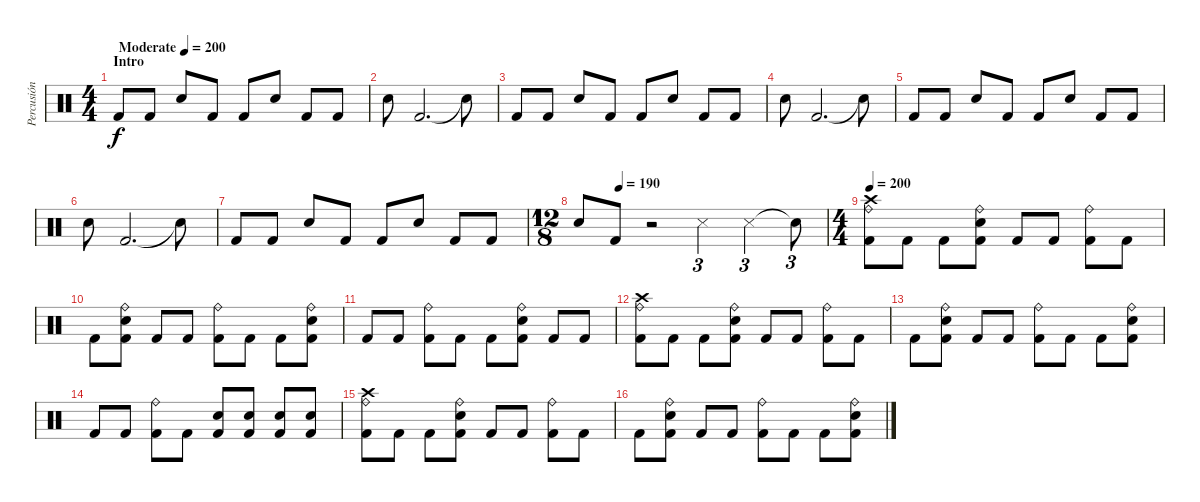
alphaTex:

\track ("Percusión" "Percusión") {instrument percussion}
\staff {score}
\articulation defaults
\ts (4 4)
\section ("" "Intro")
\tempo (200 "Moderate")
\clef neutral
\ks c "Kick (hit) 2".8{dy f} "Kick (hit) 2".8 "Snare (hit) 2".8 "Kick (hit) 2".8 "Kick (hit) 2".8 "Snare (hit) 2".8 "Kick (hit) 2".8 "Kick (hit) 2".8
|
"Snare (hit) 2".8 "Kick (hit) 2".2{d} "Snare (hit)"{t}.8 |
"Kick (hit) 2".8 "Kick (hit) 2".8 "Snare (hit) 2".8 "Kick (hit) 2".8 "Kick (hit) 2".8 "Snare (hit) 2".8 "Kick (hit) 2".8 "Kick (hit) 2".8 |
"Snare (hit) 2".8 "Kick (hit) 2".2{d} "Snare (hit)"{t}.8 |
"Kick (hit) 2".8 "Kick (hit) 2".8 "Snare (hit) 2".8 "Kick (hit) 2".8 "Kick (hit) 2".8 "Snare (hit) 2".8 "Kick (hit) 2".8 "Kick (hit) 2".8 |
"Snare (hit) 2".8 "Kick (hit) 2".2{d} "Snare (hit)"{t}.8 |
"Kick (hit) 2".8 "Kick (hit) 2".8 "Snare (hit) 2".8 "Kick (hit) 2".8 "Kick (hit) 2".8 "Snare (hit) 2".8 "Kick (hit) 2".8 "Kick (hit) 2".8 |
\ts (12 8)
\tempo (190 0.16666666666666666)
"Snare (hit) 2".8 "Kick (hit) 2".8 r.2 "Snare (side stick) 3".2{tu (3 2)} "Snare (side stick) 3".2{tu (3 2)} "Snare (hit)"{t}.8{tu (3 2)} |
\ts (4 4)
\tempo 200
("Ride (bell)" "Crash high (hit)" "Kick (hit) 2").8 "Kick (hit) 2".8 "Kick (hit) 2".8 ("Ride (bell)" "Snare (hit) 2" "Kick (hit) 2").8 "Kick (hit) 2".8 "Kick (hit) 2".8 ("Ride (bell)" "Kick (hit) 2").8 "Kick (hit) 2".8 |
"Kick (hit) 2".8 ("Ride (bell)" "Snare (hit) 2" "Kick (hit) 2").8 "Kick (hit) 2".8 "Kick (hit) 2".8 ("Ride (bell)" "Kick (hit) 2").8 "Kick (hit) 2".8 "Kick (hit) 2".8 ("Ride (bell)" "Snare (hit) 2" "Kick (hit) 2").8 |
"Kick (hit) 2".8 "Kick (hit) 2".8 ("Ride (bell)" "Kick (hit) 2").8 "Kick (hit) 2".8 "Kick (hit) 2".8 ("Ride (bell)" "Snare (hit) 2" "Kick (hit) 2").8 "Kick (hit) 2".8 "Kick (hit) 2".8 |
("Ride (bell)" "Crash high (hit)" "Kick (hit) 2").8 "Kick (hit) 2".8 "Kick (hit) 2".8 ("Ride (bell)" "Snare (hit) 2" "Kick (hit) 2").8 "Kick (hit) 2".8 "Kick (hit) 2".8 ("Ride (bell)" "Kick (hit) 2").8 "Kick (hit) 2".8 |
"Kick (hit) 2".8 ("Ride (bell)" "Snare (hit) 2" "Kick (hit) 2").8 "Kick (hit) 2".8 "Kick (hit) 2".8 ("Ride (bell)" "Kick (hit) 2").8 "Kick (hit) 2".8 "Kick (hit) 2".8 ("Ride (bell)" "Snare (hit) 2" "Kick (hit) 2").8 |
"Kick (hit) 2".8 "Kick (hit) 2".8 ("Ride (bell)" "Kick (hit) 2").8 "Kick (hit) 2".8 ("Snare (hit) 2" "Kick (hit) 2").8 ("Snare (hit) 2" "Kick (hit) 2").8 ("Snare (hit) 2" "Kick (hit) 2").8 ("Snare (hit) 2" "Kick (hit) 2").8 |
("Ride (bell)" "Crash high (hit)" "Kick (hit) 2").8 "Kick (hit) 2".8 "Kick (hit) 2".8 ("Ride (bell)" "Snare (hit) 2" "Kick (hit) 2").8 "Kick (hit) 2".8 "Kick (hit) 2".8 ("Ride (bell)" "Kick (hit) 2").8 "Kick (hit) 2".8 |
"Kick (hit) 2".8 ("Ride (bell)" "Snare (hit) 2" "Kick (hit) 2").8 "Kick (hit) 2".8 "Kick (hit) 2".8 ("Ride (bell)" "Kick (hit) 2").8 "Kick (hit) 2".8 "Kick (hit) 2".8 ("Ride (bell)" "Snare (hit) 2" "Kick (hit) 2").8
